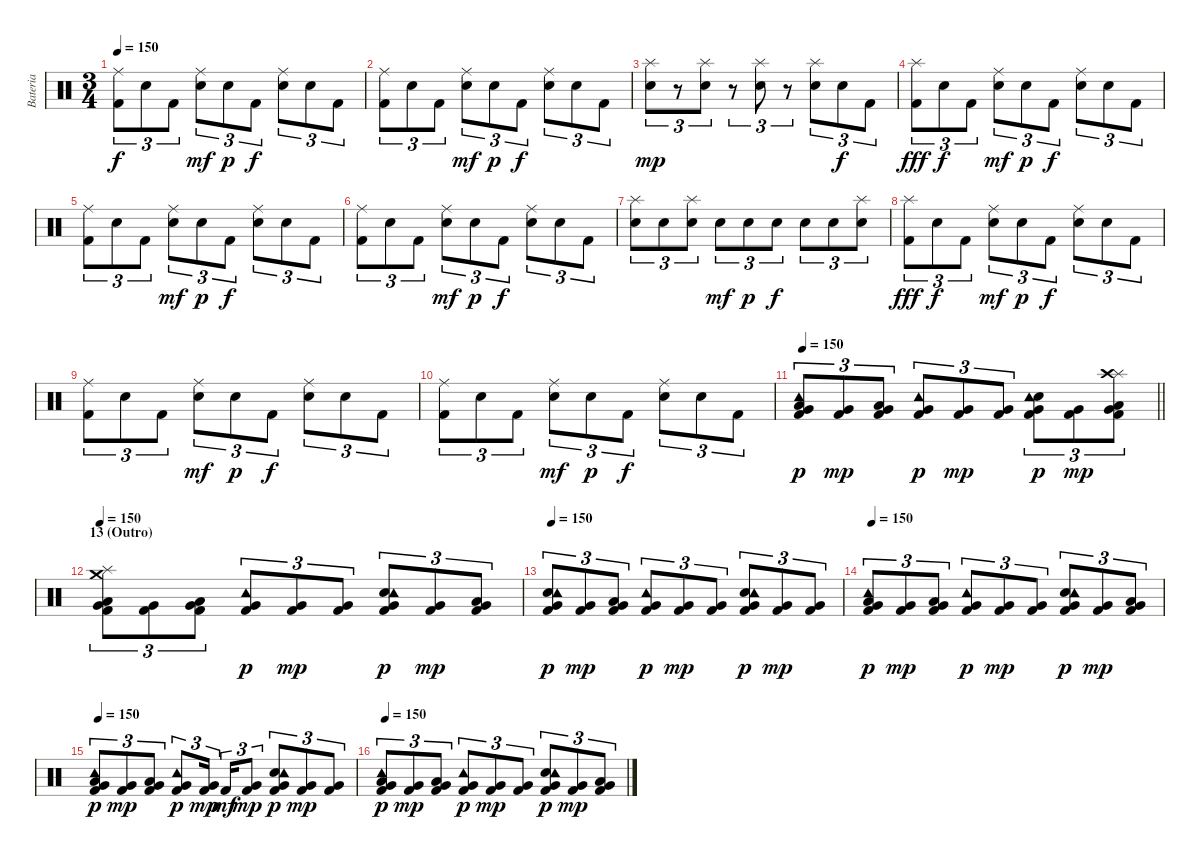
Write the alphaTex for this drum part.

\track ("Bateria" "Bateria") {instrument percussion}
\staff {score}
\articulation defaults
\ts (3 4)
\tempo 150
\clef neutral
\ks c
("Ride (middle)" "Kick (hit) 2").8{tu (3 2) dy f} "Snare (hit)".8{tu (3 2)} "Kick (hit) 2".8{tu (3 2)} ("Ride (middle)" "Electric Snare (hit)").8{tu (3 2) dy mf} "Electric Snare (hit)".8{tu (3 2) dy p} "Kick (hit) 2".8{tu (3 2) dy f} ("Ride (middle)" "Electric Snare (hit)").8{tu (3 2)} "Snare (hit)".8{tu (3 2)} "Kick (hit) 2".8{tu (3 2)} |
("Ride (middle)" "Kick (hit) 2").8{tu (3 2)} "Snare (hit)".8{tu (3 2)} "Kick (hit) 2".8{tu (3 2)} ("Ride (middle)" "Electric Snare (hit)").8{tu (3 2) dy mf} "Electric Snare (hit)".8{tu (3 2) dy p} "Kick (hit) 2".8{tu (3 2) dy f} ("Ride (middle)" "Electric Snare (hit)").8{tu (3 2)} "Snare (hit)".8{tu (3 2)} "Kick (hit) 2".8{tu (3 2)} |
("Splash (hit)" "Electric Snare (hit)").8{tu (3 2) dy mp} r.8{tu (3 2)} ("Splash (hit)" "Electric Snare (hit)").8{tu (3 2)} r.8{tu (3 2)} ("Splash (hit)" "Electric Snare (hit)").8{tu (3 2)} r.8{tu (3 2)} ("Splash (hit)" "Electric Snare (hit)").8{tu (3 2)} "Snare (hit)".8{tu (3 2) dy f} "Kick (hit) 2".8{tu (3 2)} |
("Splash (hit)" "Kick (hit) 2").8{tu (3 2) dy fff} "Snare (hit)".8{tu (3 2) dy f} "Kick (hit) 2".8{tu (3 2)} ("Ride (middle)" "Electric Snare (hit)").8{tu (3 2) dy mf} "Electric Snare (hit)".8{tu (3 2) dy p} "Kick (hit) 2".8{tu (3 2) dy f} ("Ride (middle)" "Electric Snare (hit)").8{tu (3 2)} "Snare (hit)".8{tu (3 2)} "Kick (hit) 2".8{tu (3 2)} |
("Ride (middle)" "Kick (hit) 2").8{tu (3 2)} "Snare (hit)".8{tu (3 2)} "Kick (hit) 2".8{tu (3 2)} ("Ride (middle)" "Electric Snare (hit)").8{tu (3 2) dy mf} "Electric Snare (hit)".8{tu (3 2) dy p} "Kick (hit) 2".8{tu (3 2) dy f} ("Ride (middle)" "Electric Snare (hit)").8{tu (3 2)} "Snare (hit)".8{tu (3 2)} "Kick (hit) 2".8{tu (3 2)} |
("Ride (middle)" "Kick (hit) 2").8{tu (3 2)} "Snare (hit)".8{tu (3 2)} "Kick (hit) 2".8{tu (3 2)} ("Ride (middle)" "Electric Snare (hit)").8{tu (3 2) dy mf} "Electric Snare (hit)".8{tu (3 2) dy p} "Kick (hit) 2".8{tu (3 2) dy f} ("Ride (middle)" "Electric Snare (hit)").8{tu (3 2)} "Snare (hit)".8{tu (3 2)} "Kick (hit) 2".8{tu (3 2)} |
("Splash (hit)" "Electric Snare (hit)").8{tu (3 2)} "Snare (hit)".8{tu (3 2)} ("Splash (hit)" "Electric Snare (hit)").8{tu (3 2)} "Snare (hit)".8{tu (3 2) dy mf} "Electric Snare (hit)".8{tu (3 2) dy p} "Electric Snare (hit)".8{tu (3 2) dy f} "Snare (hit)".8{tu (3 2)} "Snare (hit)".8{tu (3 2)} ("Splash (hit)" "Electric Snare (hit)").8{tu (3 2)} |
("Splash (hit)" "Kick (hit) 2").8{tu (3 2) dy fff} "Snare (hit)".8{tu (3 2) dy f} "Kick (hit) 2".8{tu (3 2)} ("Ride (middle)" "Electric Snare (hit)").8{tu (3 2) dy mf} "Electric Snare (hit)".8{tu (3 2) dy p} "Kick (hit) 2".8{tu (3 2) dy f} ("Ride (middle)" "Electric Snare (hit)").8{tu (3 2)} "Snare (hit)".8{tu (3 2)} "Kick (hit) 2".8{tu (3 2)} |
("Ride (middle)" "Kick (hit) 2").8{tu (3 2)} "Snare (hit)".8{tu (3 2)} "Kick (hit) 2".8{tu (3 2)} ("Ride (middle)" "Electric Snare (hit)").8{tu (3 2) dy mf} "Electric Snare (hit)".8{tu (3 2) dy p} "Kick (hit) 2".8{tu (3 2) dy f} ("Ride (middle)" "Electric Snare (hit)").8{tu (3 2)} "Snare (hit)".8{tu (3 2)} "Kick (hit) 2".8{tu (3 2)} |
("Ride (middle)" "Kick (hit) 2").8{tu (3 2)} "Snare (hit)".8{tu (3 2)} "Kick (hit) 2".8{tu (3 2)} ("Ride (middle)" "Electric Snare (hit)").8{tu (3 2) dy mf} "Electric Snare (hit)".8{tu (3 2) dy p} "Kick (hit) 2".8{tu (3 2) dy f} ("Ride (middle)" "Electric Snare (hit)").8{tu (3 2)} "Snare (hit)".8{tu (3 2)} "Kick (hit) 2".8{tu (3 2)} |
\tempo 150
\barLineRight lightlight
("Low Floor Tom (hit)" "Very Low Tom (hit)" "Kick (hit) 2" "Tambourine (hit)").8{tu (3 2) dy p} ("Very Low Tom (hit)" "Kick (hit) 2").8{tu (3 2) dy mp} ("Low Floor Tom (hit)" "Very Low Tom (hit)" "Kick (hit) 2").8{tu (3 2)} ("Very Low Tom (hit)" "Kick (hit) 2" "Tambourine (hit)").8{tu (3 2) dy p} ("Very Low Tom (hit)" "Kick (hit) 2").8{tu (3 2) dy mp} ("Very Low Tom (hit)" "Kick (hit) 2").8{tu (3 2)} ("Electric Snare (hit)" "Very Low Tom (hit)" "Kick (hit) 2" "Tambourine (hit)").8{tu (3 2) dy p} ("Very Low Tom (hit)" "Kick (hit) 2").8{tu (3 2) dy mp} ("Low Floor Tom (hit)" "Very Low Tom (hit)" "Kick (hit) 2" "Splash (hit)" "Crash high (hit)").8{tu (3 2)} |
\section ("" "13 (Outro)")
\tempo 150
("Low Floor Tom (hit)" "Very Low Tom (hit)" "Kick (hit) 2" "Crash medium (hit)" "Splash (hit)").8{tu (3 2)} ("Very Low Tom (hit)" "Kick (hit) 2").8{tu (3 2)} ("Low Floor Tom (hit)" "Very Low Tom (hit)" "Kick (hit) 2").8{tu (3 2)} ("Very Low Tom (hit)" "Kick (hit) 2" "Tambourine (hit)").8{tu (3 2) dy p} ("Very Low Tom (hit)" "Kick (hit) 2").8{tu (3 2) dy mp} ("Very Low Tom (hit)" "Kick (hit) 2").8{tu (3 2)} ("Electric Snare (hit)" "Very Low Tom (hit)" "Kick (hit) 2" "Tambourine (hit)").8{tu (3 2) dy p} ("Very Low Tom (hit)" "Kick (hit) 2").8{tu (3 2) dy mp} ("Low Floor Tom (hit)" "Very Low Tom (hit)" "Kick (hit) 2").8{tu (3 2)} |
\tempo 150
("Snare (hit)" "Very Low Tom (hit)" "Kick (hit) 2" "Tambourine (hit)").8{tu (3 2) dy p} ("Very Low Tom (hit)" "Kick (hit) 2").8{tu (3 2) dy mp} ("Low Floor Tom (hit)" "Very Low Tom (hit)" "Kick (hit) 2").8{tu (3 2)} ("Very Low Tom (hit)" "Kick (hit) 2" "Tambourine (hit)").8{tu (3 2) dy p} ("Very Low Tom (hit)" "Kick (hit) 2").8{tu (3 2) dy mp} ("Very Low Tom (hit)" "Kick (hit) 2").8{tu (3 2)} ("Electric Snare (hit)" "Very Low Tom (hit)" "Kick (hit) 2" "Tambourine (hit)").8{tu (3 2) dy p} ("Very Low Tom (hit)" "Kick (hit) 2").8{tu (3 2) dy mp} ("Very Low Tom (hit)" "Kick (hit) 2").8{tu (3 2)} |
\tempo 150
("Low Floor Tom (hit)" "Very Low Tom (hit)" "Kick (hit) 2" "Tambourine (hit)").8{tu (3 2) dy p} ("Very Low Tom (hit)" "Kick (hit) 2").8{tu (3 2) dy mp} ("Low Floor Tom (hit)" "Very Low Tom (hit)" "Kick (hit) 2").8{tu (3 2)} ("Very Low Tom (hit)" "Kick (hit) 2" "Tambourine (hit)").8{tu (3 2) dy p} ("Very Low Tom (hit)" "Kick (hit) 2").8{tu (3 2) dy mp} ("Very Low Tom (hit)" "Kick (hit) 2").8{tu (3 2)} ("Electric Snare (hit)" "Very Low Tom (hit)" "Kick (hit) 2" "Tambourine (hit)").8{tu (3 2) dy p} ("Very Low Tom (hit)" "Kick (hit) 2").8{tu (3 2) dy mp} ("Low Floor Tom (hit)" "Very Low Tom (hit)" "Kick (hit) 2").8{tu (3 2)} |
\tempo 150
("Low Floor Tom (hit)" "Very Low Tom (hit)" "Kick (hit) 2" "Tambourine (hit)").8{tu (3 2) dy p} ("Very Low Tom (hit)" "Kick (hit) 2").8{tu (3 2) dy mp} ("Low Floor Tom (hit)" "Very Low Tom (hit)" "Kick (hit) 2").8{tu (3 2)} ("Very Low Tom (hit)" "Kick (hit) 2" "Tambourine (hit)").8{tu (3 2) dy p} ("Very Low Tom (hit)" "Kick (hit) 2").16{tu (3 2) dy mp beam splitsecondary} "Kick (hit) 2".16{tu (3 2) dy mf} ("Very Low Tom (hit)" "Kick (hit) 2").8{tu (3 2) dy mp} ("Electric Snare (hit)" "Very Low Tom (hit)" "Kick (hit) 2" "Tambourine (hit)").8{tu (3 2) dy p} ("Very Low Tom (hit)" "Kick (hit) 2").8{tu (3 2) dy mp} ("Very Low Tom (hit)" "Kick (hit) 2").8{tu (3 2)} |
\tempo 150
("Low Floor Tom (hit)" "Very Low Tom (hit)" "Kick (hit) 2" "Tambourine (hit)").8{tu (3 2) dy p} ("Very Low Tom (hit)" "Kick (hit) 2").8{tu (3 2) dy mp} ("Low Floor Tom (hit)" "Very Low Tom (hit)" "Kick (hit) 2").8{tu (3 2)} ("Very Low Tom (hit)" "Kick (hit) 2" "Tambourine (hit)").8{tu (3 2) dy p} ("Very Low Tom (hit)" "Kick (hit) 2").8{tu (3 2) dy mp} ("Very Low Tom (hit)" "Kick (hit) 2").8{tu (3 2)} ("Electric Snare (hit)" "Very Low Tom (hit)" "Kick (hit) 2" "Tambourine (hit)").8{tu (3 2) dy p} ("Very Low Tom (hit)" "Kick (hit) 2").8{tu (3 2) dy mp} ("Low Floor Tom (hit)" "Very Low Tom (hit)" "Kick (hit) 2").8{tu (3 2)}
